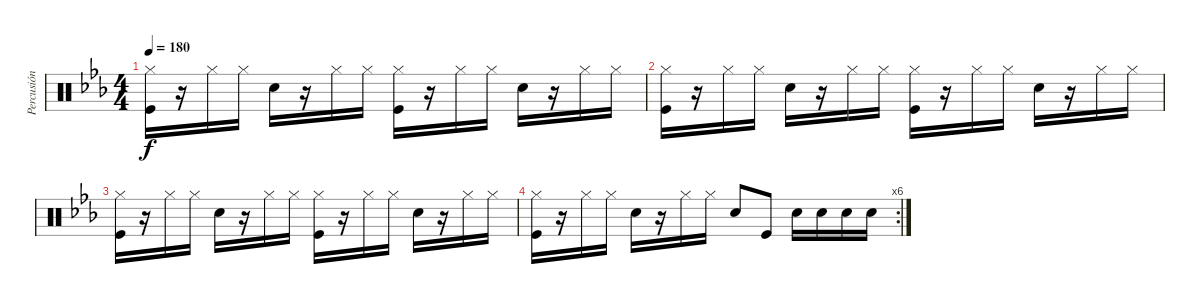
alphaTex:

\track ("Percusión" "Percusión") {instrument percussion}
\staff {score}
\articulation defaults
\ts (4 4)
\tempo 180
\clef neutral
\ks eb
("Hi-Hat (closed)" "Kick (hit)").16{dy f} r.16 "Hi-Hat (closed)".16 "Hi-Hat (closed)".16 "Snare (hit) 2".16 r.16 "Hi-Hat (closed)".16 "Hi-Hat (closed)".16 ("Hi-Hat (closed)" "Kick (hit)").16 r.16 "Hi-Hat (closed)".16 "Hi-Hat (closed)".16 "Snare (hit) 2".16 r.16 "Hi-Hat (closed)".16 "Hi-Hat (closed)".16 |
("Hi-Hat (closed)" "Kick (hit)").16 r.16 "Hi-Hat (closed)".16 "Hi-Hat (closed)".16 "Snare (hit) 2".16 r.16 "Hi-Hat (closed)".16 "Hi-Hat (closed)".16 ("Hi-Hat (closed)" "Kick (hit)").16 r.16 "Hi-Hat (closed)".16 "Hi-Hat (closed)".16 "Snare (hit) 2".16 r.16 "Hi-Hat (closed)".16 "Hi-Hat (closed)".16 |
("Hi-Hat (closed)" "Kick (hit)").16 r.16 "Hi-Hat (closed)".16 "Hi-Hat (closed)".16 "Snare (hit) 2".16 r.16 "Hi-Hat (closed)".16 "Hi-Hat (closed)".16 ("Hi-Hat (closed)" "Kick (hit)").16 r.16 "Hi-Hat (closed)".16 "Hi-Hat (closed)".16 "Snare (hit) 2".16 r.16 "Hi-Hat (closed)".16 "Hi-Hat (closed)".16 |
\rc 6
("Hi-Hat (closed)" "Kick (hit)").16 r.16 "Hi-Hat (closed)".16 "Hi-Hat (closed)".16 "Snare (hit) 2".16 r.16 "Hi-Hat (closed)".16 "Hi-Hat (closed)".16 "Snare (hit) 2".8 "Kick (hit)".8 "Snare (hit) 2".16 "Snare (hit) 2".16 "Snare (hit) 2".16 "Snare (hit) 2".16
